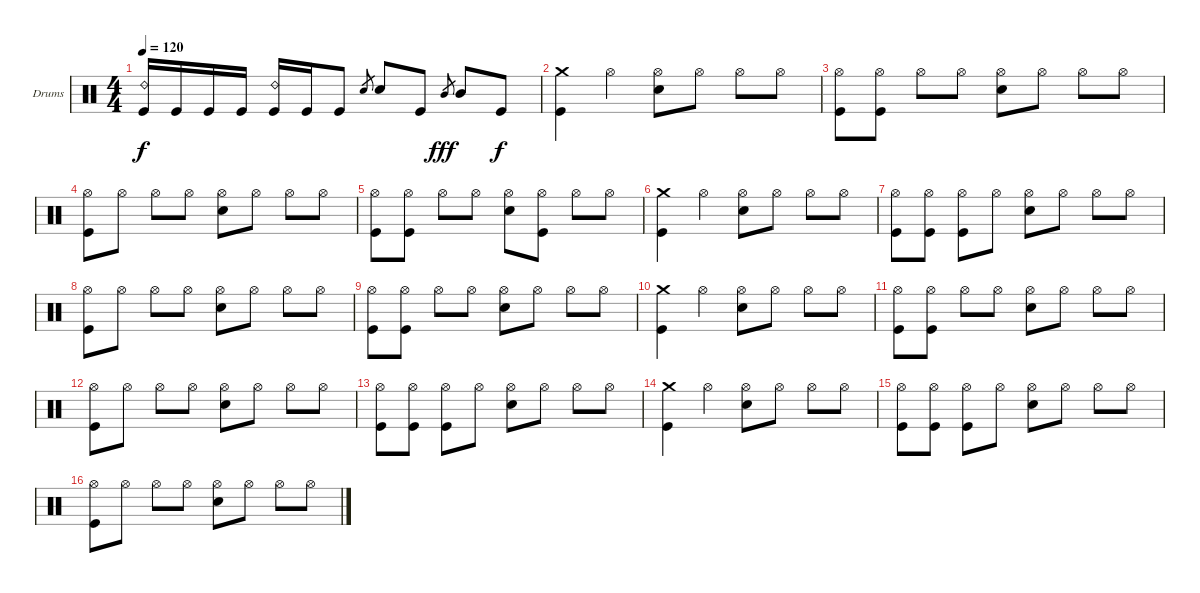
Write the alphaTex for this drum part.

\defaultSystemsLayout 4
\bracketExtendMode groupsimilarinstruments
\firstSystemTrackNameOrientation horizontal
\otherSystemsTrackNameOrientation horizontal
\track ("Drums" "Drums") {instrument percussion}
\staff {score}
\articulation defaults
\ts (4 4)
\tempo 120
\clef neutral
\ks c
("Kick (hit)" "Ride (bell) 2").16{dy f} "Kick (hit)".16 "Kick (hit)".16 "Kick (hit)".16 ("Kick (hit)" "Ride (bell) 2").16 "Kick (hit)".16 "Kick (hit)".8 "Snare (hit) 2".8{gr} "Snare (hit) 2".8 "Kick (hit)".8 "Mid Tom (hit)".8{gr dy fff} "Mid Tom (hit)".8 "Kick (hit)".8{dy f} |
("Kick (hit)" "Crash medium (hit)").4 "Hi-Hat (open)".4 ("Snare (hit) 2" "Hi-Hat (open)").8 "Hi-Hat (open)".8 "Hi-Hat (open)".8 "Hi-Hat (open)".8 |
("Hi-Hat (open)" "Kick (hit)").8 ("Hi-Hat (open)" "Kick (hit)").8 "Hi-Hat (open)".8 "Hi-Hat (open)".8 ("Hi-Hat (open)" "Snare (hit) 2").8 "Hi-Hat (open)".8 "Hi-Hat (open)".8 "Hi-Hat (open)".8 |
("Hi-Hat (open)" "Kick (hit)").8 "Hi-Hat (open)".8 "Hi-Hat (open)".8 "Hi-Hat (open)".8 ("Hi-Hat (open)" "Snare (hit) 2").8 "Hi-Hat (open)".8 "Hi-Hat (open)".8 "Hi-Hat (open)".8 |
("Hi-Hat (open)" "Kick (hit)").8 ("Hi-Hat (open)" "Kick (hit)").8 "Hi-Hat (open)".8 "Hi-Hat (open)".8 ("Hi-Hat (open)" "Snare (hit) 2").8 ("Hi-Hat (open)" "Kick (hit)").8 "Hi-Hat (open)".8 "Hi-Hat (open)".8 |
("Kick (hit)" "Crash medium (hit)").4 "Hi-Hat (open)".4 ("Snare (hit) 2" "Hi-Hat (open)").8 "Hi-Hat (open)".8 "Hi-Hat (open)".8 "Hi-Hat (open)".8 |
("Hi-Hat (open)" "Kick (hit)").8 ("Hi-Hat (open)" "Kick (hit)").8 ("Hi-Hat (open)" "Kick (hit)").8 "Hi-Hat (open)".8 ("Hi-Hat (open)" "Snare (hit) 2").8 "Hi-Hat (open)".8 "Hi-Hat (open)".8 "Hi-Hat (open)".8 |
("Hi-Hat (open)" "Kick (hit)").8 "Hi-Hat (open)".8 "Hi-Hat (open)".8 "Hi-Hat (open)".8 ("Hi-Hat (open)" "Snare (hit) 2").8 "Hi-Hat (open)".8 "Hi-Hat (open)".8 "Hi-Hat (open)".8 |
("Hi-Hat (open)" "Kick (hit)").8 ("Hi-Hat (open)" "Kick (hit)").8 "Hi-Hat (open)".8 "Hi-Hat (open)".8 ("Hi-Hat (open)" "Snare (hit) 2").8 "Hi-Hat (open)".8 "Hi-Hat (open)".8 "Hi-Hat (open)".8 |
("Kick (hit)" "Crash medium (hit)").4 "Hi-Hat (open)".4 ("Snare (hit) 2" "Hi-Hat (open)").8 "Hi-Hat (open)".8 "Hi-Hat (open)".8 "Hi-Hat (open)".8 |
("Hi-Hat (open)" "Kick (hit)").8 ("Hi-Hat (open)" "Kick (hit)").8 "Hi-Hat (open)".8 "Hi-Hat (open)".8 ("Hi-Hat (open)" "Snare (hit) 2").8 "Hi-Hat (open)".8 "Hi-Hat (open)".8 "Hi-Hat (open)".8 |
("Hi-Hat (open)" "Kick (hit)").8 "Hi-Hat (open)".8 "Hi-Hat (open)".8 "Hi-Hat (open)".8 ("Hi-Hat (open)" "Snare (hit) 2").8 "Hi-Hat (open)".8 "Hi-Hat (open)".8 "Hi-Hat (open)".8 |
("Hi-Hat (open)" "Kick (hit)").8 ("Hi-Hat (open)" "Kick (hit)").8 ("Hi-Hat (open)" "Kick (hit)").8 "Hi-Hat (open)".8 ("Hi-Hat (open)" "Snare (hit) 2").8 "Hi-Hat (open)".8 "Hi-Hat (open)".8 "Hi-Hat (open)".8 |
("Kick (hit)" "Crash medium (hit)").4 "Hi-Hat (open)".4 ("Snare (hit) 2" "Hi-Hat (open)").8 "Hi-Hat (open)".8 "Hi-Hat (open)".8 "Hi-Hat (open)".8 |
("Hi-Hat (open)" "Kick (hit)").8 ("Hi-Hat (open)" "Kick (hit)").8 ("Hi-Hat (open)" "Kick (hit)").8 "Hi-Hat (open)".8 ("Hi-Hat (open)" "Snare (hit) 2").8 "Hi-Hat (open)".8 "Hi-Hat (open)".8 "Hi-Hat (open)".8 |
("Hi-Hat (open)" "Kick (hit)").8 "Hi-Hat (open)".8 "Hi-Hat (open)".8 "Hi-Hat (open)".8 ("Hi-Hat (open)" "Snare (hit) 2").8 "Hi-Hat (open)".8 "Hi-Hat (open)".8 "Hi-Hat (open)".8
